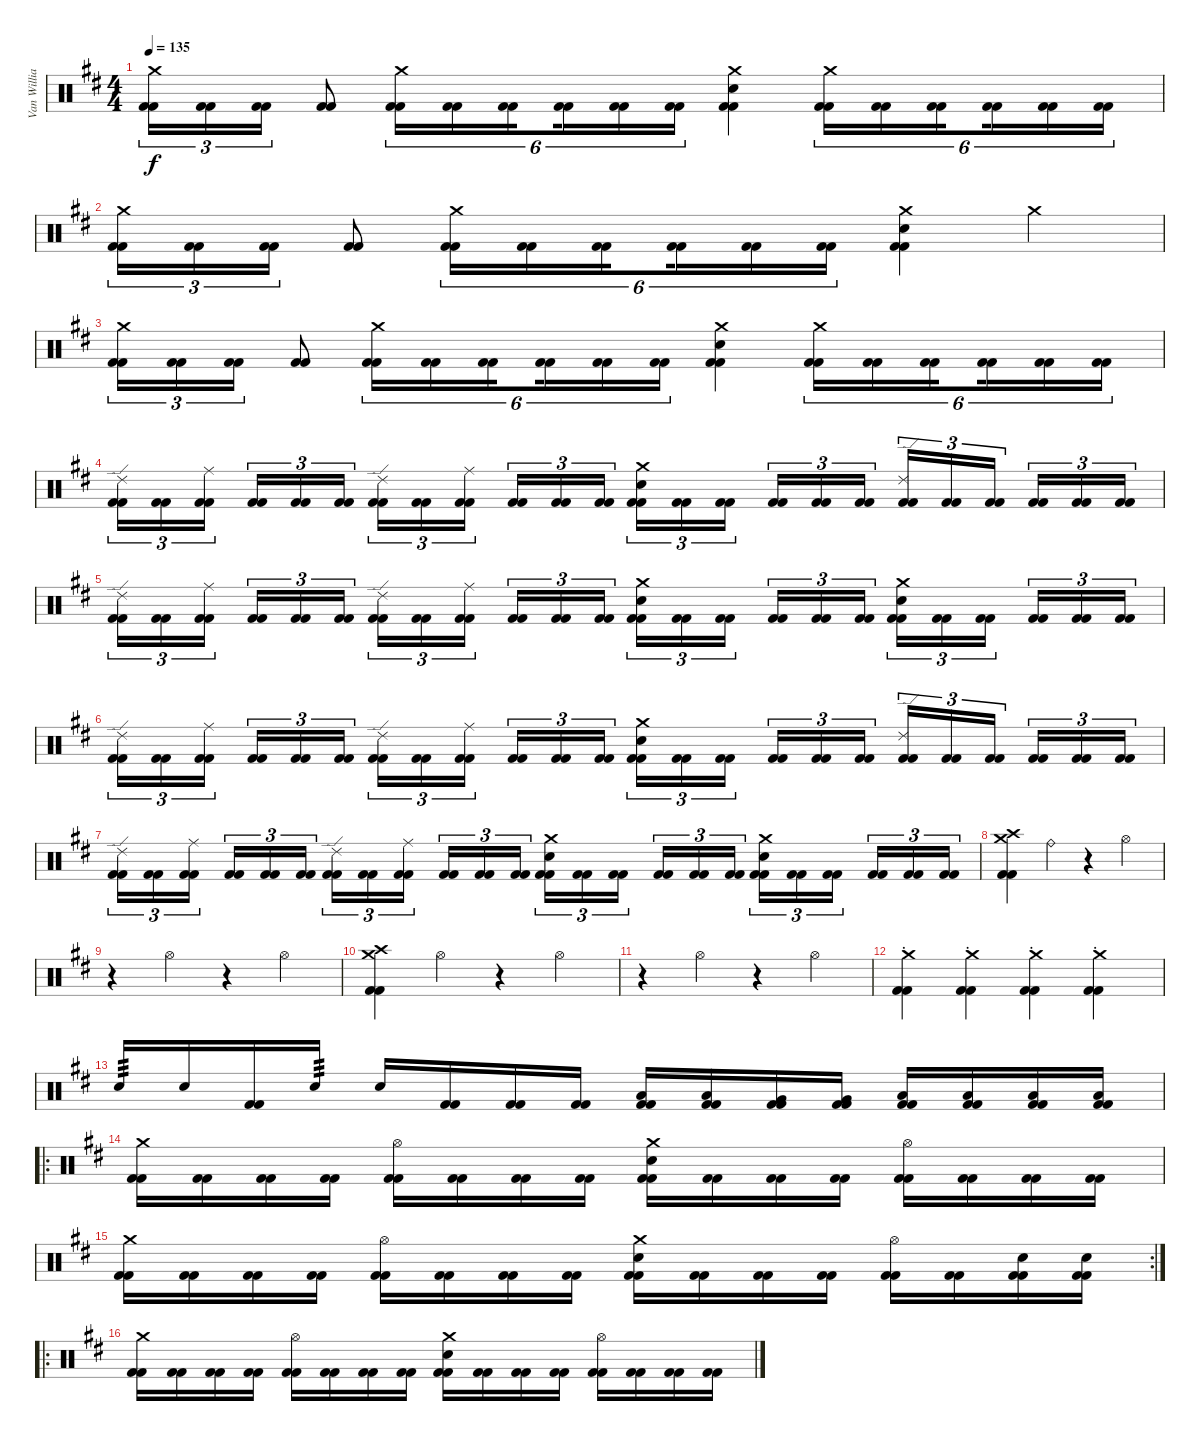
\track ("Van Williams" "Van Willia") {instrument percussion}
\staff {score}
\articulation defaults
\ts (4 4)
\tempo 135
\clef neutral
\ks d
("Crash medium (hit)" "Kick (hit) 2" "Kick (hit) 2").16{tu (3 2) dy f} ("Kick (hit) 2" "Kick (hit) 2").16{tu (3 2)} ("Kick (hit) 2" "Kick (hit) 2").16{tu (3 2)} ("Kick (hit) 2" "Kick (hit) 2").8 ("Crash medium (hit)" "Kick (hit) 2" "Kick (hit) 2").16{tu (6 4)} ("Kick (hit) 2" "Kick (hit) 2").16{tu (6 4)} ("Kick (hit) 2" "Kick (hit) 2").16{tu (6 4) beam splitsecondary} ("Kick (hit) 2" "Kick (hit) 2").16{tu (6 4)} ("Kick (hit) 2" "Kick (hit) 2").16{tu (6 4)} ("Kick (hit) 2" "Kick (hit) 2").16{tu (6 4)} ("Crash medium (hit)" "Electric Snare (hit)" "Kick (hit) 2" "Kick (hit) 2").4 ("Crash medium (hit)" "Kick (hit) 2" "Kick (hit) 2").16{tu (6 4)} ("Kick (hit) 2" "Kick (hit) 2").16{tu (6 4)} ("Kick (hit) 2" "Kick (hit) 2").16{tu (6 4) beam splitsecondary} ("Kick (hit) 2" "Kick (hit) 2").16{tu (6 4)} ("Kick (hit) 2" "Kick (hit) 2").16{tu (6 4)} ("Kick (hit) 2" "Kick (hit) 2").16{tu (6 4)} |
("Crash medium (hit)" "Kick (hit) 2" "Kick (hit) 2").16{tu (3 2)} ("Kick (hit) 2" "Kick (hit) 2").16{tu (3 2)} ("Kick (hit) 2" "Kick (hit) 2").16{tu (3 2)} ("Kick (hit) 2" "Kick (hit) 2").8 ("Crash medium (hit)" "Kick (hit) 2" "Kick (hit) 2").16{tu (6 4)} ("Kick (hit) 2" "Kick (hit) 2").16{tu (6 4)} ("Kick (hit) 2" "Kick (hit) 2").16{tu (6 4) beam splitsecondary} ("Kick (hit) 2" "Kick (hit) 2").16{tu (6 4)} ("Kick (hit) 2" "Kick (hit) 2").16{tu (6 4)} ("Kick (hit) 2" "Kick (hit) 2").16{tu (6 4)} ("Crash medium (hit)" "Electric Snare (hit)" "Kick (hit) 2" "Kick (hit) 2").4 "Crash medium (hit)".4 |
("Crash medium (hit)" "Kick (hit) 2" "Kick (hit) 2").16{tu (3 2)} ("Kick (hit) 2" "Kick (hit) 2").16{tu (3 2)} ("Kick (hit) 2" "Kick (hit) 2").16{tu (3 2)} ("Kick (hit) 2" "Kick (hit) 2").8 ("Crash medium (hit)" "Kick (hit) 2" "Kick (hit) 2").16{tu (6 4)} ("Kick (hit) 2" "Kick (hit) 2").16{tu (6 4)} ("Kick (hit) 2" "Kick (hit) 2").16{tu (6 4) beam splitsecondary} ("Kick (hit) 2" "Kick (hit) 2").16{tu (6 4)} ("Kick (hit) 2" "Kick (hit) 2").16{tu (6 4)} ("Kick (hit) 2" "Kick (hit) 2").16{tu (6 4)} ("Crash medium (hit)" "Electric Snare (hit)" "Kick (hit) 2" "Kick (hit) 2").4 ("Crash medium (hit)" "Kick (hit) 2" "Kick (hit) 2").16{tu (6 4)} ("Kick (hit) 2" "Kick (hit) 2").16{tu (6 4)} ("Kick (hit) 2" "Kick (hit) 2").16{tu (6 4) beam splitsecondary} ("Kick (hit) 2" "Kick (hit) 2").16{tu (6 4)} ("Kick (hit) 2" "Kick (hit) 2").16{tu (6 4)} ("Kick (hit) 2" "Kick (hit) 2").16{tu (6 4)} |
("Ride (edge) 2" "Kick (hit) 2" "Kick (hit) 2").16{tu (3 2)} ("Kick (hit) 2" "Kick (hit) 2").16{tu (3 2)} ("Ride (middle)" "Kick (hit) 2" "Kick (hit) 2").16{tu (3 2) beam splitsecondary} ("Kick (hit) 2" "Kick (hit) 2").16{tu (3 2)} ("Kick (hit) 2" "Kick (hit) 2").16{tu (3 2)} ("Kick (hit) 2" "Kick (hit) 2").16{tu (3 2)} ("Ride (edge) 2" "Kick (hit) 2" "Kick (hit) 2").16{tu (3 2)} ("Kick (hit) 2" "Kick (hit) 2").16{tu (3 2)} ("Ride (middle)" "Kick (hit) 2" "Kick (hit) 2").16{tu (3 2) beam splitsecondary} ("Kick (hit) 2" "Kick (hit) 2").16{tu (3 2)} ("Kick (hit) 2" "Kick (hit) 2").16{tu (3 2)} ("Kick (hit) 2" "Kick (hit) 2").16{tu (3 2)} ("Crash medium (hit)" "Electric Snare (hit)" "Kick (hit) 2" "Kick (hit) 2").16{tu (3 2)} ("Kick (hit) 2" "Kick (hit) 2").16{tu (3 2)} ("Kick (hit) 2" "Kick (hit) 2").16{tu (3 2) beam splitsecondary} ("Kick (hit) 2" "Kick (hit) 2").16{tu (3 2)} ("Kick (hit) 2" "Kick (hit) 2").16{tu (3 2)} ("Kick (hit) 2" "Kick (hit) 2").16{tu (3 2)} ("Ride (edge) 2" "Kick (hit) 2" "Kick (hit) 2").16{tu (3 2)} ("Kick (hit) 2" "Kick (hit) 2").16{tu (3 2)} ("Kick (hit) 2" "Kick (hit) 2").16{tu (3 2) beam splitsecondary} ("Kick (hit) 2" "Kick (hit) 2").16{tu (3 2)} ("Kick (hit) 2" "Kick (hit) 2").16{tu (3 2)} ("Kick (hit) 2" "Kick (hit) 2").16{tu (3 2)} |
("Ride (edge) 2" "Kick (hit) 2" "Kick (hit) 2").16{tu (3 2)} ("Kick (hit) 2" "Kick (hit) 2").16{tu (3 2)} ("Ride (middle)" "Kick (hit) 2" "Kick (hit) 2").16{tu (3 2) beam splitsecondary} ("Kick (hit) 2" "Kick (hit) 2").16{tu (3 2)} ("Kick (hit) 2" "Kick (hit) 2").16{tu (3 2)} ("Kick (hit) 2" "Kick (hit) 2").16{tu (3 2)} ("Ride (edge) 2" "Kick (hit) 2" "Kick (hit) 2").16{tu (3 2)} ("Kick (hit) 2" "Kick (hit) 2").16{tu (3 2)} ("Ride (middle)" "Kick (hit) 2" "Kick (hit) 2").16{tu (3 2) beam splitsecondary} ("Kick (hit) 2" "Kick (hit) 2").16{tu (3 2)} ("Kick (hit) 2" "Kick (hit) 2").16{tu (3 2)} ("Kick (hit) 2" "Kick (hit) 2").16{tu (3 2)} ("Crash medium (hit)" "Electric Snare (hit)" "Kick (hit) 2" "Kick (hit) 2").16{tu (3 2)} ("Kick (hit) 2" "Kick (hit) 2").16{tu (3 2)} ("Kick (hit) 2" "Kick (hit) 2").16{tu (3 2) beam splitsecondary} ("Kick (hit) 2" "Kick (hit) 2").16{tu (3 2)} ("Kick (hit) 2" "Kick (hit) 2").16{tu (3 2)} ("Kick (hit) 2" "Kick (hit) 2").16{tu (3 2)} ("Crash medium (hit)" "Electric Snare (hit)" "Kick (hit) 2" "Kick (hit) 2").16{tu (3 2)} ("Kick (hit) 2" "Kick (hit) 2").16{tu (3 2)} ("Kick (hit) 2" "Kick (hit) 2").16{tu (3 2) beam splitsecondary} ("Kick (hit) 2" "Kick (hit) 2").16{tu (3 2)} ("Kick (hit) 2" "Kick (hit) 2").16{tu (3 2)} ("Kick (hit) 2" "Kick (hit) 2").16{tu (3 2)} |
("Ride (edge) 2" "Kick (hit) 2" "Kick (hit) 2").16{tu (3 2)} ("Kick (hit) 2" "Kick (hit) 2").16{tu (3 2)} ("Ride (middle)" "Kick (hit) 2" "Kick (hit) 2").16{tu (3 2) beam splitsecondary} ("Kick (hit) 2" "Kick (hit) 2").16{tu (3 2)} ("Kick (hit) 2" "Kick (hit) 2").16{tu (3 2)} ("Kick (hit) 2" "Kick (hit) 2").16{tu (3 2)} ("Ride (edge) 2" "Kick (hit) 2" "Kick (hit) 2").16{tu (3 2)} ("Kick (hit) 2" "Kick (hit) 2").16{tu (3 2)} ("Ride (middle)" "Kick (hit) 2" "Kick (hit) 2").16{tu (3 2) beam splitsecondary} ("Kick (hit) 2" "Kick (hit) 2").16{tu (3 2)} ("Kick (hit) 2" "Kick (hit) 2").16{tu (3 2)} ("Kick (hit) 2" "Kick (hit) 2").16{tu (3 2)} ("Crash medium (hit)" "Electric Snare (hit)" "Kick (hit) 2" "Kick (hit) 2").16{tu (3 2)} ("Kick (hit) 2" "Kick (hit) 2").16{tu (3 2)} ("Kick (hit) 2" "Kick (hit) 2").16{tu (3 2) beam splitsecondary} ("Kick (hit) 2" "Kick (hit) 2").16{tu (3 2)} ("Kick (hit) 2" "Kick (hit) 2").16{tu (3 2)} ("Kick (hit) 2" "Kick (hit) 2").16{tu (3 2)} ("Ride (edge) 2" "Kick (hit) 2" "Kick (hit) 2").16{tu (3 2)} ("Kick (hit) 2" "Kick (hit) 2").16{tu (3 2)} ("Kick (hit) 2" "Kick (hit) 2").16{tu (3 2) beam splitsecondary} ("Kick (hit) 2" "Kick (hit) 2").16{tu (3 2)} ("Kick (hit) 2" "Kick (hit) 2").16{tu (3 2)} ("Kick (hit) 2" "Kick (hit) 2").16{tu (3 2)} |
("Ride (edge) 2" "Kick (hit) 2" "Kick (hit) 2").16{tu (3 2)} ("Kick (hit) 2" "Kick (hit) 2").16{tu (3 2)} ("Ride (middle)" "Kick (hit) 2" "Kick (hit) 2").16{tu (3 2) beam splitsecondary} ("Kick (hit) 2" "Kick (hit) 2").16{tu (3 2)} ("Kick (hit) 2" "Kick (hit) 2").16{tu (3 2)} ("Kick (hit) 2" "Kick (hit) 2").16{tu (3 2)} ("Ride (edge) 2" "Kick (hit) 2" "Kick (hit) 2").16{tu (3 2)} ("Kick (hit) 2" "Kick (hit) 2").16{tu (3 2)} ("Ride (middle)" "Kick (hit) 2" "Kick (hit) 2").16{tu (3 2) beam splitsecondary} ("Kick (hit) 2" "Kick (hit) 2").16{tu (3 2)} ("Kick (hit) 2" "Kick (hit) 2").16{tu (3 2)} ("Kick (hit) 2" "Kick (hit) 2").16{tu (3 2)} ("Crash medium (hit)" "Electric Snare (hit)" "Kick (hit) 2" "Kick (hit) 2").16{tu (3 2)} ("Kick (hit) 2" "Kick (hit) 2").16{tu (3 2)} ("Kick (hit) 2" "Kick (hit) 2").16{tu (3 2) beam splitsecondary} ("Kick (hit) 2" "Kick (hit) 2").16{tu (3 2)} ("Kick (hit) 2" "Kick (hit) 2").16{tu (3 2)} ("Kick (hit) 2" "Kick (hit) 2").16{tu (3 2)} ("Crash medium (hit)" "Electric Snare (hit)" "Kick (hit) 2" "Kick (hit) 2").16{tu (3 2)} ("Kick (hit) 2" "Kick (hit) 2").16{tu (3 2)} ("Kick (hit) 2" "Kick (hit) 2").16{tu (3 2) beam splitsecondary} ("Kick (hit) 2" "Kick (hit) 2").16{tu (3 2)} ("Kick (hit) 2" "Kick (hit) 2").16{tu (3 2)} ("Kick (hit) 2" "Kick (hit) 2").16{tu (3 2)} |
("Crash medium (hit)" "Crash high (hit)" "Kick (hit) 2" "Kick (hit) 2").4 "Ride (bell)".4 r.4 "Hi-Hat (open)".4 |
r.4 "Hi-Hat (open)".4 r.4 "Hi-Hat (open)".4 |
("Crash medium (hit)" "Crash high (hit)" "Kick (hit) 2" "Kick (hit) 2").4 "Hi-Hat (open)".4 r.4 "Hi-Hat (open)".4 |
r.4 "Hi-Hat (open)".4 r.4 "Hi-Hat (open)".4 |
("Crash medium (hit)"{st} "Kick (hit) 2" "Kick (hit) 2").4 ("Crash medium (hit)"{st} "Kick (hit) 2" "Kick (hit) 2").4 ("Crash medium (hit)"{st} "Kick (hit) 2" "Kick (hit) 2").4 ("Crash medium (hit)"{st} "Kick (hit) 2" "Kick (hit) 2").4 |
"Electric Snare (hit)".16{tp 3} "Electric Snare (hit)".16 ("Kick (hit) 2" "Kick (hit) 2").16 "Electric Snare (hit)".16{tp 3} "Electric Snare (hit)".16 ("Kick (hit) 2" "Kick (hit) 2").16 ("Kick (hit) 2" "Kick (hit) 2").16 ("Kick (hit) 2" "Kick (hit) 2").16 ("Low Tom (hit)" "Kick (hit) 2" "Kick (hit) 2").16 ("Low Tom (hit)" "Kick (hit) 2" "Kick (hit) 2").16 ("Very Low Tom (hit)" "Kick (hit) 2" "Kick (hit) 2").16 ("Very Low Tom (hit)" "Kick (hit) 2" "Kick (hit) 2").16 ("Low Tom (hit)" "Kick (hit) 2" "Kick (hit) 2").16 ("Low Tom (hit)" "Kick (hit) 2" "Kick (hit) 2").16 ("Low Floor Tom (hit)" "Kick (hit) 2" "Kick (hit) 2").16 ("Low Floor Tom (hit)" "Kick (hit) 2" "Kick (hit) 2").16 |
\ro
("Crash medium (hit)" "Kick (hit) 2" "Kick (hit) 2").16 ("Kick (hit) 2" "Kick (hit) 2").16 ("Kick (hit) 2" "Kick (hit) 2").16 ("Kick (hit) 2" "Kick (hit) 2").16 ("Hi-Hat (open)" "Kick (hit) 2" "Kick (hit) 2").16 ("Kick (hit) 2" "Kick (hit) 2").16 ("Kick (hit) 2" "Kick (hit) 2").16 ("Kick (hit) 2" "Kick (hit) 2").16 ("Crash medium (hit)" "Electric Snare (hit)" "Kick (hit) 2" "Kick (hit) 2").16 ("Kick (hit) 2" "Kick (hit) 2").16 ("Kick (hit) 2" "Kick (hit) 2").16 ("Kick (hit) 2" "Kick (hit) 2").16 ("Hi-Hat (open)" "Kick (hit) 2" "Kick (hit) 2").16 ("Kick (hit) 2" "Kick (hit) 2").16 ("Kick (hit) 2" "Kick (hit) 2").16 ("Kick (hit) 2" "Kick (hit) 2").16 |
\rc 2
("Crash medium (hit)" "Kick (hit) 2" "Kick (hit) 2").16 ("Kick (hit) 2" "Kick (hit) 2").16 ("Kick (hit) 2" "Kick (hit) 2").16 ("Kick (hit) 2" "Kick (hit) 2").16 ("Hi-Hat (open)" "Kick (hit) 2" "Kick (hit) 2").16 ("Kick (hit) 2" "Kick (hit) 2").16 ("Kick (hit) 2" "Kick (hit) 2").16 ("Kick (hit) 2" "Kick (hit) 2").16 ("Crash medium (hit)" "Electric Snare (hit)" "Kick (hit) 2" "Kick (hit) 2").16 ("Kick (hit) 2" "Kick (hit) 2").16 ("Kick (hit) 2" "Kick (hit) 2").16 ("Kick (hit) 2" "Kick (hit) 2").16 ("Hi-Hat (open)" "Kick (hit) 2" "Kick (hit) 2").16 ("Kick (hit) 2" "Kick (hit) 2").16 ("Electric Snare (hit)" "Kick (hit) 2" "Kick (hit) 2").16 ("Electric Snare (hit)" "Kick (hit) 2" "Kick (hit) 2").16 |
\ro
("Crash medium (hit)" "Kick (hit) 2" "Kick (hit) 2").16 ("Kick (hit) 2" "Kick (hit) 2").16 ("Kick (hit) 2" "Kick (hit) 2").16 ("Kick (hit) 2" "Kick (hit) 2").16 ("Hi-Hat (open)" "Kick (hit) 2" "Kick (hit) 2").16 ("Kick (hit) 2" "Kick (hit) 2").16 ("Kick (hit) 2" "Kick (hit) 2").16 ("Kick (hit) 2" "Kick (hit) 2").16 ("Crash medium (hit)" "Electric Snare (hit)" "Kick (hit) 2" "Kick (hit) 2").16 ("Kick (hit) 2" "Kick (hit) 2").16 ("Kick (hit) 2" "Kick (hit) 2").16 ("Kick (hit) 2" "Kick (hit) 2").16 ("Hi-Hat (open)" "Kick (hit) 2" "Kick (hit) 2").16 ("Kick (hit) 2" "Kick (hit) 2").16 ("Kick (hit) 2" "Kick (hit) 2").16 ("Kick (hit) 2" "Kick (hit) 2").16
